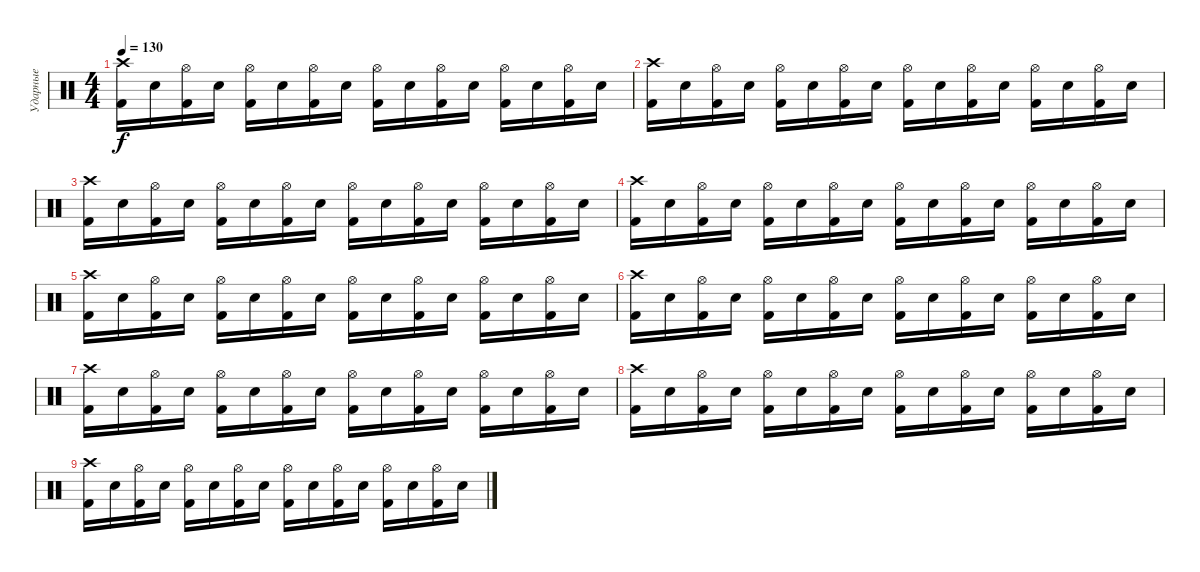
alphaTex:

\track ("Ударные" "Ударные") {instrument percussion}
\staff {score}
\articulation defaults
\ts (4 4)
\tempo 130
\clef neutral
\ks c
("Crash high (hit)" "Kick (hit) 2").16{dy f} "Snare (hit) 2".16 ("Hi-Hat (open)" "Kick (hit) 2").16 "Snare (hit) 2".16 ("Hi-Hat (open)" "Kick (hit) 2").16 "Snare (hit) 2".16 ("Hi-Hat (open)" "Kick (hit) 2").16 "Snare (hit) 2".16 ("Hi-Hat (open)" "Kick (hit) 2").16 "Snare (hit) 2".16 ("Hi-Hat (open)" "Kick (hit) 2").16 "Snare (hit) 2".16 ("Hi-Hat (open)" "Kick (hit) 2").16 "Snare (hit) 2".16 ("Hi-Hat (open)" "Kick (hit) 2").16 "Snare (hit) 2".16 |
("Crash high (hit)" "Kick (hit) 2").16 "Snare (hit) 2".16 ("Hi-Hat (open)" "Kick (hit) 2").16 "Snare (hit) 2".16 ("Hi-Hat (open)" "Kick (hit) 2").16 "Snare (hit) 2".16 ("Hi-Hat (open)" "Kick (hit) 2").16 "Snare (hit) 2".16 ("Hi-Hat (open)" "Kick (hit) 2").16 "Snare (hit) 2".16 ("Hi-Hat (open)" "Kick (hit) 2").16 "Snare (hit) 2".16 ("Hi-Hat (open)" "Kick (hit) 2").16 "Snare (hit) 2".16 ("Hi-Hat (open)" "Kick (hit) 2").16 "Snare (hit) 2".16 |
("Crash high (hit)" "Kick (hit) 2").16 "Snare (hit) 2".16 ("Hi-Hat (open)" "Kick (hit) 2").16 "Snare (hit) 2".16 ("Hi-Hat (open)" "Kick (hit) 2").16 "Snare (hit) 2".16 ("Hi-Hat (open)" "Kick (hit) 2").16 "Snare (hit) 2".16 ("Hi-Hat (open)" "Kick (hit) 2").16 "Snare (hit) 2".16 ("Hi-Hat (open)" "Kick (hit) 2").16 "Snare (hit) 2".16 ("Hi-Hat (open)" "Kick (hit) 2").16 "Snare (hit) 2".16 ("Hi-Hat (open)" "Kick (hit) 2").16 "Snare (hit) 2".16 |
("Crash high (hit)" "Kick (hit) 2").16 "Snare (hit) 2".16 ("Hi-Hat (open)" "Kick (hit) 2").16 "Snare (hit) 2".16 ("Hi-Hat (open)" "Kick (hit) 2").16 "Snare (hit) 2".16 ("Hi-Hat (open)" "Kick (hit) 2").16 "Snare (hit) 2".16 ("Hi-Hat (open)" "Kick (hit) 2").16 "Snare (hit) 2".16 ("Hi-Hat (open)" "Kick (hit) 2").16 "Snare (hit) 2".16 ("Hi-Hat (open)" "Kick (hit) 2").16 "Snare (hit) 2".16 ("Hi-Hat (open)" "Kick (hit) 2").16 "Snare (hit) 2".16 |
("Crash high (hit)" "Kick (hit) 2").16 "Snare (hit) 2".16 ("Hi-Hat (open)" "Kick (hit) 2").16 "Snare (hit) 2".16 ("Hi-Hat (open)" "Kick (hit) 2").16 "Snare (hit) 2".16 ("Hi-Hat (open)" "Kick (hit) 2").16 "Snare (hit) 2".16 ("Hi-Hat (open)" "Kick (hit) 2").16 "Snare (hit) 2".16 ("Hi-Hat (open)" "Kick (hit) 2").16 "Snare (hit) 2".16 ("Hi-Hat (open)" "Kick (hit) 2").16 "Snare (hit) 2".16 ("Hi-Hat (open)" "Kick (hit) 2").16 "Snare (hit) 2".16 |
("Crash high (hit)" "Kick (hit) 2").16 "Snare (hit) 2".16 ("Hi-Hat (open)" "Kick (hit) 2").16 "Snare (hit) 2".16 ("Hi-Hat (open)" "Kick (hit) 2").16 "Snare (hit) 2".16 ("Hi-Hat (open)" "Kick (hit) 2").16 "Snare (hit) 2".16 ("Hi-Hat (open)" "Kick (hit) 2").16 "Snare (hit) 2".16 ("Hi-Hat (open)" "Kick (hit) 2").16 "Snare (hit) 2".16 ("Hi-Hat (open)" "Kick (hit) 2").16 "Snare (hit) 2".16 ("Hi-Hat (open)" "Kick (hit) 2").16 "Snare (hit) 2".16 |
("Crash high (hit)" "Kick (hit) 2").16 "Snare (hit) 2".16 ("Hi-Hat (open)" "Kick (hit) 2").16 "Snare (hit) 2".16 ("Hi-Hat (open)" "Kick (hit) 2").16 "Snare (hit) 2".16 ("Hi-Hat (open)" "Kick (hit) 2").16 "Snare (hit) 2".16 ("Hi-Hat (open)" "Kick (hit) 2").16 "Snare (hit) 2".16 ("Hi-Hat (open)" "Kick (hit) 2").16 "Snare (hit) 2".16 ("Hi-Hat (open)" "Kick (hit) 2").16 "Snare (hit) 2".16 ("Hi-Hat (open)" "Kick (hit) 2").16 "Snare (hit) 2".16 |
("Crash high (hit)" "Kick (hit) 2").16 "Snare (hit) 2".16 ("Hi-Hat (open)" "Kick (hit) 2").16 "Snare (hit) 2".16 ("Hi-Hat (open)" "Kick (hit) 2").16 "Snare (hit) 2".16 ("Hi-Hat (open)" "Kick (hit) 2").16 "Snare (hit) 2".16 ("Hi-Hat (open)" "Kick (hit) 2").16 "Snare (hit) 2".16 ("Hi-Hat (open)" "Kick (hit) 2").16 "Snare (hit) 2".16 ("Hi-Hat (open)" "Kick (hit) 2").16 "Snare (hit) 2".16 ("Hi-Hat (open)" "Kick (hit) 2").16 "Snare (hit) 2".16 |
("Crash high (hit)" "Kick (hit) 2").16 "Snare (hit) 2".16 ("Hi-Hat (open)" "Kick (hit) 2").16 "Snare (hit) 2".16 ("Hi-Hat (open)" "Kick (hit) 2").16 "Snare (hit) 2".16 ("Hi-Hat (open)" "Kick (hit) 2").16 "Snare (hit) 2".16 ("Hi-Hat (open)" "Kick (hit) 2").16 "Snare (hit) 2".16 ("Hi-Hat (open)" "Kick (hit) 2").16 "Snare (hit) 2".16 ("Hi-Hat (open)" "Kick (hit) 2").16 "Snare (hit) 2".16 ("Hi-Hat (open)" "Kick (hit) 2").16 "Snare (hit) 2".16
